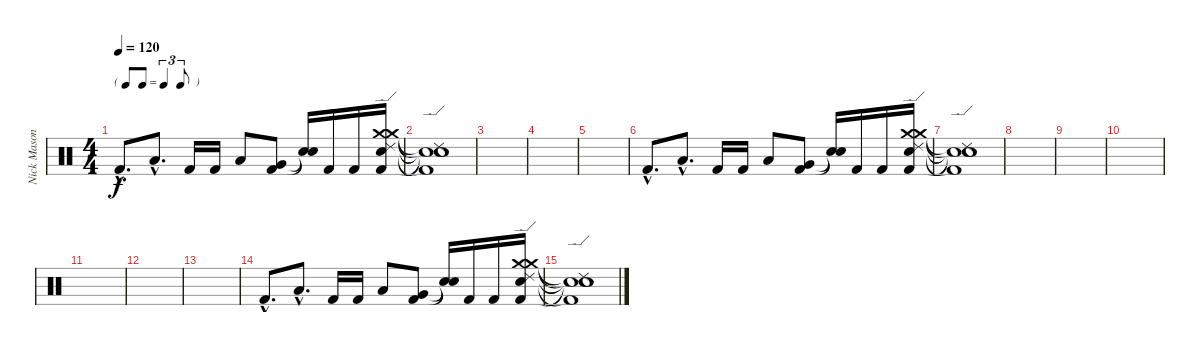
\track ("Nick Mason" "Nick Mason") {instrument percussion}
\staff {score}
\articulation defaults
\ts (4 4)
\tf triplet8th
\tempo 120
\clef neutral
\ks c "Kick (hit) 2"{hac}.8{d dy f} "Low Tom (hit)"{hac}.8{d} "Kick (hit) 2".16 "Kick (hit) 2".16 "Low Tom (hit)".8
("Very Low Tom (hit)" "Kick (hit) 2").8 ("Snare (hit)"{t} "Snare (hit)"{t}).16 "Kick (hit) 2".16 "Kick (hit) 2".16 ("Crash medium (hit)" "Crash medium (hit)" "Electric Snare (hit)" "Kick (hit) 2" "Ride (edge) 2").16 |
("Ride (edge) 2"{t} "Electric Snare (hit)"{t} "Kick (hit) 2"{t} "Snare (hit)"{t} "Snare (hit)"{t}).1 |
|
|
|
"Kick (hit) 2"{hac}.8{d} "Low Tom (hit)"{hac}.8{d} "Kick (hit) 2".16 "Kick (hit) 2".16 "Low Tom (hit)".8 ("Very Low Tom (hit)" "Kick (hit) 2").8 ("Snare (hit)"{t} "Snare (hit)"{t}).16 "Kick (hit) 2".16 "Kick (hit) 2".16 ("Crash medium (hit)" "Crash medium (hit)" "Electric Snare (hit)" "Kick (hit) 2" "Ride (edge) 2").16 |
("Ride (edge) 2"{t} "Electric Snare (hit)"{t} "Kick (hit) 2"{t} "Snare (hit)"{t} "Snare (hit)"{t}).1 |
|
|
|
|
|
|
"Kick (hit) 2"{hac}.8{d} "Low Tom (hit)"{hac}.8{d} "Kick (hit) 2".16 "Kick (hit) 2".16 "Low Tom (hit)".8 ("Very Low Tom (hit)" "Kick (hit) 2").8 ("Snare (hit)"{t} "Snare (hit)"{t}).16 "Kick (hit) 2".16 "Kick (hit) 2".16 ("Crash medium (hit)" "Crash medium (hit)" "Electric Snare (hit)" "Kick (hit) 2" "Ride (edge) 2").16 |
("Ride (edge) 2"{t} "Electric Snare (hit)"{t} "Kick (hit) 2"{t} "Snare (hit)"{t} "Snare (hit)"{t}).1
